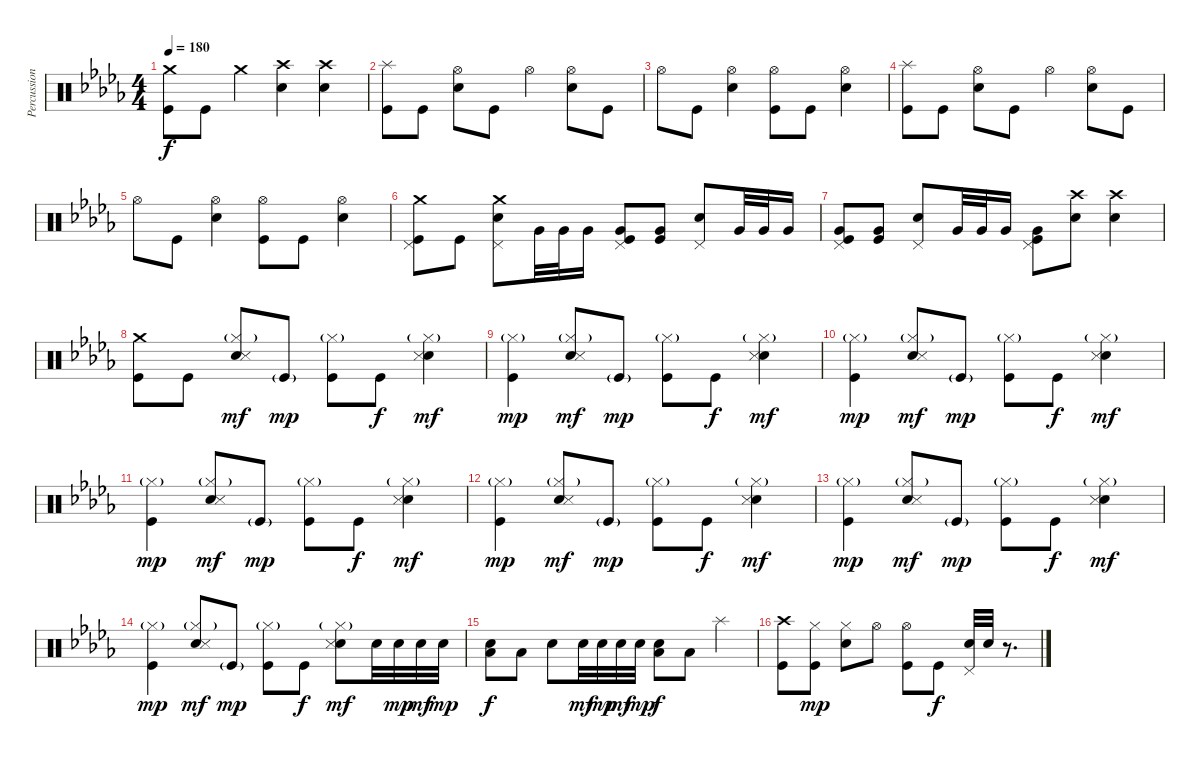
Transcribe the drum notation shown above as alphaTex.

\track ("Percussion" "Percussion") {instrument percussion}
\staff {score}
\articulation defaults
\ts (4 4)
\tempo 180
\clef neutral
\ks db
("Crash medium (hit)" "Kick (hit)").8{dy f} "Kick (hit)".8 "Crash medium (hit)".4 ("Crash high (hit)" "Electric Snare (hit)").4 ("Crash high (hit)" "Electric Snare (hit)").4 |
("Splash (hit)" "Kick (hit)").8 "Kick (hit)".8 ("Hi-Hat (open)" "Electric Snare (hit)").8 "Kick (hit)".8 "Hi-Hat (open)".4 ("Hi-Hat (open)" "Electric Snare (hit)").8 "Kick (hit)".8 |
"Hi-Hat (open)".8 "Kick (hit)".8 ("Hi-Hat (open)" "Electric Snare (hit)").4 ("Hi-Hat (open)" "Kick (hit)").8 "Kick (hit)".8 ("Hi-Hat (open)" "Electric Snare (hit)").4 |
("Splash (hit)" "Kick (hit)").8 "Kick (hit)".8 ("Hi-Hat (open)" "Electric Snare (hit)").8 "Kick (hit)".8 "Hi-Hat (open)".4 ("Hi-Hat (open)" "Electric Snare (hit)").8 "Kick (hit)".8 |
"Hi-Hat (open)".8 "Kick (hit)".8 ("Hi-Hat (open)" "Electric Snare (hit)").4 ("Hi-Hat (open)" "Kick (hit)").8 "Kick (hit)".8 ("Hi-Hat (open)" "Electric Snare (hit)").4 |
("Crash medium (hit)" "Pedal Hi-Hat (hit)" "Kick (hit)").8 "Kick (hit)".8 ("Crash medium (hit)" "Electric Snare (hit)" "Pedal Hi-Hat (hit)").8 "Very Low Tom (hit)".32 "Very Low Tom (hit)".32 "Very Low Tom (hit)".16 ("Very Low Tom (hit)" "Pedal Hi-Hat (hit)" "Kick (hit)").8 ("Very Low Tom (hit)" "Kick (hit)").8 ("Electric Snare (hit)" "Pedal Hi-Hat (hit)").8 "Very Low Tom (hit)".32 "Very Low Tom (hit)".32 "Very Low Tom (hit)".16 |
("Very Low Tom (hit)" "Pedal Hi-Hat (hit)" "Kick (hit)").8 ("Very Low Tom (hit)" "Kick (hit)").8 ("Electric Snare (hit)" "Pedal Hi-Hat (hit)").8 "Very Low Tom (hit)".32 "Very Low Tom (hit)".32 "Very Low Tom (hit)".16 ("Very Low Tom (hit)" "Pedal Hi-Hat (hit)" "Kick (hit)").8 ("Crash high (hit)" "Electric Snare (hit)").8 ("Crash high (hit)" "Electric Snare (hit)").4 |
("Crash medium (hit)" "Kick (hit)").8 "Kick (hit)".8 ("Hi-Hat (closed)"{g} "Electric Snare (hit)" "Snare (side stick) 3").8{dy mf} "Kick (hit)"{g}.8{dy mp} ("Hi-Hat (closed)"{g} "Kick (hit)").8 "Kick (hit)".8{dy f} ("Hi-Hat (closed)"{g} "Electric Snare (hit)" "Snare (side stick) 3").4{dy mf} |
("Hi-Hat (closed)"{g} "Kick (hit)").4{dy mp} ("Hi-Hat (closed)"{g} "Electric Snare (hit)" "Snare (side stick) 3").8{dy mf} "Kick (hit)"{g}.8{dy mp} ("Hi-Hat (closed)"{g} "Kick (hit)").8 "Kick (hit)".8{dy f} ("Hi-Hat (closed)"{g} "Electric Snare (hit)" "Snare (side stick) 3").4{dy mf} |
("Hi-Hat (closed)"{g} "Kick (hit)").4{dy mp} ("Hi-Hat (closed)"{g} "Electric Snare (hit)" "Snare (side stick) 3").8{dy mf} "Kick (hit)"{g}.8{dy mp} ("Hi-Hat (closed)"{g} "Kick (hit)").8 "Kick (hit)".8{dy f} ("Hi-Hat (closed)"{g} "Electric Snare (hit)" "Snare (side stick) 3").4{dy mf} |
("Hi-Hat (closed)"{g} "Kick (hit)").4{dy mp} ("Hi-Hat (closed)"{g} "Electric Snare (hit)" "Snare (side stick) 3").8{dy mf} "Kick (hit)"{g}.8{dy mp} ("Hi-Hat (closed)"{g} "Kick (hit)").8 "Kick (hit)".8{dy f} ("Hi-Hat (closed)"{g} "Electric Snare (hit)" "Snare (side stick) 3").4{dy mf} |
("Hi-Hat (closed)"{g} "Kick (hit)").4{dy mp} ("Hi-Hat (closed)"{g} "Electric Snare (hit)" "Snare (side stick) 3").8{dy mf} "Kick (hit)"{g}.8{dy mp} ("Hi-Hat (closed)"{g} "Kick (hit)").8 "Kick (hit)".8{dy f} ("Hi-Hat (closed)"{g} "Electric Snare (hit)" "Snare (side stick) 3").4{dy mf} |
("Hi-Hat (closed)"{g} "Kick (hit)").4{dy mp} ("Hi-Hat (closed)"{g} "Electric Snare (hit)" "Snare (side stick) 3").8{dy mf} "Kick (hit)"{g}.8{dy mp} ("Hi-Hat (closed)"{g} "Kick (hit)").8 "Kick (hit)".8{dy f} ("Hi-Hat (closed)"{g} "Electric Snare (hit)" "Snare (side stick) 3").4{dy mf} |
("Hi-Hat (closed)"{g} "Kick (hit)").4{dy mp} ("Hi-Hat (closed)"{g} "Electric Snare (hit)" "Snare (side stick) 3").8{dy mf} "Kick (hit)"{g}.8{dy mp} ("Hi-Hat (closed)"{g} "Kick (hit)").8 "Kick (hit)".8{dy f} ("Hi-Hat (closed)"{g} "Electric Snare (hit)" "Snare (side stick) 3").8{dy mf} "Electric Snare (hit)".32 "Electric Snare (hit)".32{dy mp} "Electric Snare (hit)".32{dy mf} "Electric Snare (hit)".32{dy mp} |
("Electric Snare (hit)" "Low Floor Tom (hit)").8{dy f} "Low Floor Tom (hit)".8 "Electric Snare (hit)".8 "Electric Snare (hit)".32{dy mf} "Electric Snare (hit)".32{dy mp} "Electric Snare (hit)".32{dy mf} "Electric Snare (hit)".32{dy mp} ("Electric Snare (hit)" "Low Floor Tom (hit)").8{dy f} "Low Floor Tom (hit)".8 "Splash (hit)".4 |
("Crash high (hit)" "Kick (hit)").8 ("Hi-Hat (closed)" "Kick (hit)").8{dy mp} ("Hi-Hat (closed)" "Electric Snare (hit)").8 "Hi-Hat (open)".8 ("Hi-Hat (open)" "Kick (hit)").8 "Kick (hit)".8{dy f} ("Electric Snare (hit)" "Pedal Hi-Hat (hit)").32 "Electric Snare (hit)".32 r.8{d}
